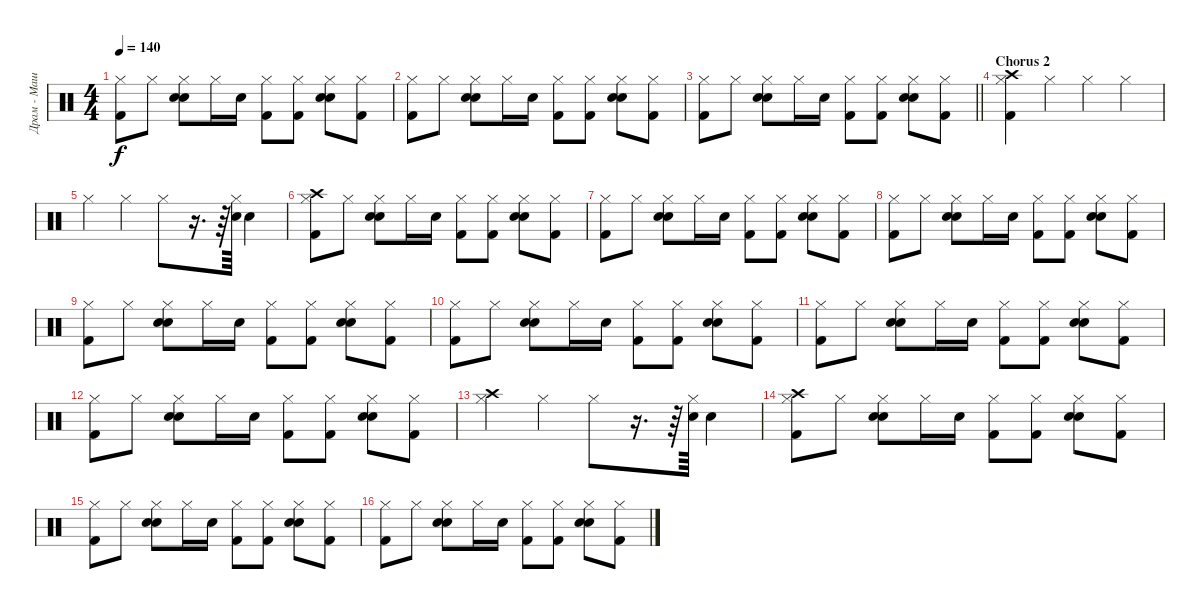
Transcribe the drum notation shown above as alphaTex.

\track ("Драм - Машина" "Драм - Маш") {instrument percussion}
\staff {score}
\articulation defaults
\ts (4 4)
\tempo 140
\clef neutral
\ks c
("Kick (hit) 2" "Hi-Hat (closed)").8{dy f} "Hi-Hat (closed)".8 ("Hand Clap (hit)" "Snare (hit) 2" "Hi-Hat (closed)").8 "Hi-Hat (closed)".16 "Snare (hit) 2".16 ("Kick (hit) 2" "Hi-Hat (closed)").8 ("Hi-Hat (closed)" "Kick (hit) 2").8 ("Hand Clap (hit)" "Snare (hit) 2" "Hi-Hat (closed)").8 ("Hi-Hat (closed)" "Kick (hit) 2").8 |
("Kick (hit) 2" "Hi-Hat (closed)").8 "Hi-Hat (closed)".8 ("Hand Clap (hit)" "Snare (hit) 2" "Hi-Hat (closed)").8 "Hi-Hat (closed)".16 "Snare (hit) 2".16 ("Kick (hit) 2" "Hi-Hat (closed)").8 ("Hi-Hat (closed)" "Kick (hit) 2").8 ("Hand Clap (hit)" "Snare (hit) 2" "Hi-Hat (closed)").8 ("Hi-Hat (closed)" "Kick (hit) 2").8 |
\barLineRight lightlight
("Kick (hit) 2" "Hi-Hat (closed)").8 "Hi-Hat (closed)".8 ("Hand Clap (hit)" "Snare (hit) 2" "Hi-Hat (closed)").8 "Hi-Hat (closed)".16 "Snare (hit) 2".16 ("Kick (hit) 2" "Hi-Hat (closed)").8 ("Hi-Hat (closed)" "Kick (hit) 2").8 ("Hand Clap (hit)" "Snare (hit) 2" "Hi-Hat (closed)").8 ("Hi-Hat (closed)" "Kick (hit) 2").8 |
\section ("" "Chorus 2")
("Crash high (hit)" "Kick (hit) 2" "Hi-Hat (closed)").4 "Hi-Hat (closed)".4 "Hi-Hat (closed)".4 "Hi-Hat (closed)".4 |
"Hi-Hat (closed)".4 "Hi-Hat (closed)".4 "Hi-Hat (closed)".8 r.16{d} r.64 ("Snare (hit) 2" "Hi-Hat (closed)").64 "Electric Snare (hit)".4 |
("Kick (hit) 2" "Crash high (hit)" "Hi-Hat (closed)").8 "Hi-Hat (closed)".8 ("Hand Clap (hit)" "Snare (hit) 2" "Hi-Hat (closed)").8 "Hi-Hat (closed)".16 "Snare (hit) 2".16 ("Kick (hit) 2" "Hi-Hat (closed)").8 ("Hi-Hat (closed)" "Kick (hit) 2").8 ("Hand Clap (hit)" "Snare (hit) 2" "Hi-Hat (closed)").8 ("Hi-Hat (closed)" "Kick (hit) 2").8 |
("Kick (hit) 2" "Hi-Hat (closed)").8 "Hi-Hat (closed)".8 ("Hand Clap (hit)" "Snare (hit) 2" "Hi-Hat (closed)").8 "Hi-Hat (closed)".16 "Snare (hit) 2".16 ("Kick (hit) 2" "Hi-Hat (closed)").8 ("Hi-Hat (closed)" "Kick (hit) 2").8 ("Hand Clap (hit)" "Snare (hit) 2" "Hi-Hat (closed)").8 ("Hi-Hat (closed)" "Kick (hit) 2").8 |
("Kick (hit) 2" "Hi-Hat (closed)").8 "Hi-Hat (closed)".8 ("Hand Clap (hit)" "Snare (hit) 2" "Hi-Hat (closed)").8 "Hi-Hat (closed)".16 "Snare (hit) 2".16 ("Kick (hit) 2" "Hi-Hat (closed)").8 ("Hi-Hat (closed)" "Kick (hit) 2").8 ("Hand Clap (hit)" "Snare (hit) 2" "Hi-Hat (closed)").8 ("Hi-Hat (closed)" "Kick (hit) 2").8 |
("Kick (hit) 2" "Hi-Hat (closed)").8 "Hi-Hat (closed)".8 ("Hand Clap (hit)" "Snare (hit) 2" "Hi-Hat (closed)").8 "Hi-Hat (closed)".16 "Snare (hit) 2".16 ("Kick (hit) 2" "Hi-Hat (closed)").8 ("Hi-Hat (closed)" "Kick (hit) 2").8 ("Hand Clap (hit)" "Snare (hit) 2" "Hi-Hat (closed)").8 ("Hi-Hat (closed)" "Kick (hit) 2").8 |
("Kick (hit) 2" "Hi-Hat (closed)").8 "Hi-Hat (closed)".8 ("Hand Clap (hit)" "Snare (hit) 2" "Hi-Hat (closed)").8 "Hi-Hat (closed)".16 "Snare (hit) 2".16 ("Kick (hit) 2" "Hi-Hat (closed)").8 ("Hi-Hat (closed)" "Kick (hit) 2").8 ("Hand Clap (hit)" "Snare (hit) 2" "Hi-Hat (closed)").8 ("Hi-Hat (closed)" "Kick (hit) 2").8 |
("Kick (hit) 2" "Hi-Hat (closed)").8 "Hi-Hat (closed)".8 ("Hand Clap (hit)" "Snare (hit) 2" "Hi-Hat (closed)").8 "Hi-Hat (closed)".16 "Snare (hit) 2".16 ("Kick (hit) 2" "Hi-Hat (closed)").8 ("Hi-Hat (closed)" "Kick (hit) 2").8 ("Hand Clap (hit)" "Snare (hit) 2" "Hi-Hat (closed)").8 ("Hi-Hat (closed)" "Kick (hit) 2").8 |
("Kick (hit) 2" "Hi-Hat (closed)").8 "Hi-Hat (closed)".8 ("Hand Clap (hit)" "Snare (hit) 2" "Hi-Hat (closed)").8 "Hi-Hat (closed)".16 "Snare (hit) 2".16 ("Kick (hit) 2" "Hi-Hat (closed)").8 ("Hi-Hat (closed)" "Kick (hit) 2").8 ("Hand Clap (hit)" "Snare (hit) 2" "Hi-Hat (closed)").8 ("Hi-Hat (closed)" "Kick (hit) 2").8 |
("Crash high (hit)" "Hi-Hat (closed)").4 "Hi-Hat (closed)".4 "Hi-Hat (closed)".8 r.16{d} r.64 ("Snare (hit) 2" "Hi-Hat (closed)").64 "Electric Snare (hit)".4 |
("Kick (hit) 2" "Hi-Hat (closed)" "Crash high (hit)").8 "Hi-Hat (closed)".8 ("Hand Clap (hit)" "Snare (hit) 2" "Hi-Hat (closed)").8 "Hi-Hat (closed)".16 "Snare (hit) 2".16 ("Kick (hit) 2" "Hi-Hat (closed)").8 ("Hi-Hat (closed)" "Kick (hit) 2").8 ("Hand Clap (hit)" "Snare (hit) 2" "Hi-Hat (closed)").8 ("Hi-Hat (closed)" "Kick (hit) 2").8 |
("Kick (hit) 2" "Hi-Hat (closed)").8 "Hi-Hat (closed)".8 ("Hand Clap (hit)" "Snare (hit) 2" "Hi-Hat (closed)").8 "Hi-Hat (closed)".16 "Snare (hit) 2".16 ("Kick (hit) 2" "Hi-Hat (closed)").8 ("Hi-Hat (closed)" "Kick (hit) 2").8 ("Hand Clap (hit)" "Snare (hit) 2" "Hi-Hat (closed)").8 ("Hi-Hat (closed)" "Kick (hit) 2").8 |
("Kick (hit) 2" "Hi-Hat (closed)").8 "Hi-Hat (closed)".8 ("Hand Clap (hit)" "Snare (hit) 2" "Hi-Hat (closed)").8 "Hi-Hat (closed)".16 "Snare (hit) 2".16 ("Kick (hit) 2" "Hi-Hat (closed)").8 ("Hi-Hat (closed)" "Kick (hit) 2").8 ("Hand Clap (hit)" "Snare (hit) 2" "Hi-Hat (closed)").8 ("Hi-Hat (closed)" "Kick (hit) 2").8
